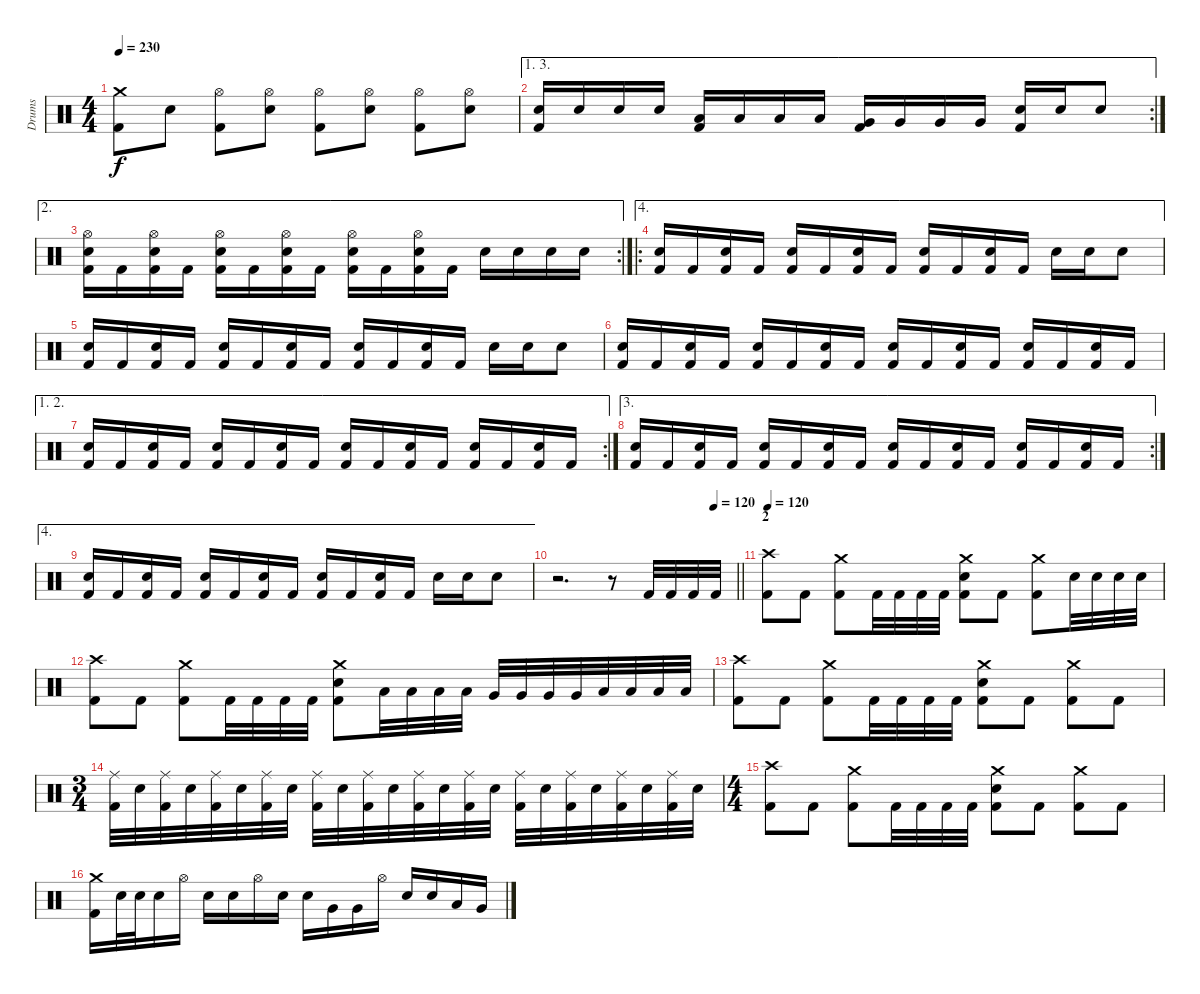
\track ("Drums" "Drums") {instrument percussion}
\staff {score}
\articulation defaults
\ts (4 4)
\tempo 230
\clef neutral
\ks c
("Crash medium (hit)" "Kick (hit) 2").8{dy f} "Electric Snare (hit)".8 ("Hi-Hat (open)" "Kick (hit) 2").8 ("Hi-Hat (open)" "Electric Snare (hit)").8 ("Hi-Hat (open)" "Kick (hit) 2").8 ("Hi-Hat (open)" "Electric Snare (hit)").8 ("Hi-Hat (open)" "Kick (hit) 2").8 ("Hi-Hat (open)" "Electric Snare (hit)").8 |
\ae (1 3)
\rc 2
("Electric Snare (hit)" "Kick (hit) 2").16 "Electric Snare (hit)".16 "Electric Snare (hit)".16 "Electric Snare (hit)".16 ("Low Tom (hit)" "Kick (hit) 2").16 "Low Tom (hit)".16 "Low Tom (hit)".16 "Low Tom (hit)".16 ("Very Low Tom (hit)" "Kick (hit) 2").16 "Very Low Tom (hit)".16 "Very Low Tom (hit)".16 "Very Low Tom (hit)".16 ("Electric Snare (hit)" "Kick (hit) 2").16 "Electric Snare (hit)".16 "Electric Snare (hit)".8 |
\ae 2
\rc 2
("Hi-Hat (open)" "Electric Snare (hit)" "Kick (hit) 2").16 "Kick (hit) 2".16 ("Hi-Hat (open)" "Electric Snare (hit)" "Kick (hit) 2").16 "Kick (hit) 2".16 ("Hi-Hat (open)" "Electric Snare (hit)" "Kick (hit) 2").16 "Kick (hit) 2".16 ("Hi-Hat (open)" "Electric Snare (hit)" "Kick (hit) 2").16 "Kick (hit) 2".16 ("Hi-Hat (open)" "Electric Snare (hit)" "Kick (hit) 2").16 "Kick (hit) 2".16 ("Hi-Hat (open)" "Electric Snare (hit)" "Kick (hit) 2").16 "Kick (hit) 2".16 "Electric Snare (hit)".16 "Electric Snare (hit)".16 "Electric Snare (hit)".16 "Electric Snare (hit)".16 |
\ae 4
\ro
("Electric Snare (hit)" "Kick (hit) 2").16 "Kick (hit) 2".16 ("Electric Snare (hit)" "Kick (hit) 2").16 "Kick (hit) 2".16 ("Electric Snare (hit)" "Kick (hit) 2").16 "Kick (hit) 2".16 ("Electric Snare (hit)" "Kick (hit) 2").16 "Kick (hit) 2".16 ("Electric Snare (hit)" "Kick (hit) 2").16 "Kick (hit) 2".16 ("Electric Snare (hit)" "Kick (hit) 2").16 "Kick (hit) 2".16 "Electric Snare (hit)".16 "Electric Snare (hit)".16 "Electric Snare (hit)".8 |
("Electric Snare (hit)" "Kick (hit) 2").16 "Kick (hit) 2".16 ("Electric Snare (hit)" "Kick (hit) 2").16 "Kick (hit) 2".16 ("Electric Snare (hit)" "Kick (hit) 2").16 "Kick (hit) 2".16 ("Electric Snare (hit)" "Kick (hit) 2").16 "Kick (hit) 2".16 ("Electric Snare (hit)" "Kick (hit) 2").16 "Kick (hit) 2".16 ("Electric Snare (hit)" "Kick (hit) 2").16 "Kick (hit) 2".16 "Electric Snare (hit)".16 "Electric Snare (hit)".16 "Electric Snare (hit)".8 |
("Electric Snare (hit)" "Kick (hit) 2").16 "Kick (hit) 2".16 ("Electric Snare (hit)" "Kick (hit) 2").16 "Kick (hit) 2".16 ("Electric Snare (hit)" "Kick (hit) 2").16 "Kick (hit) 2".16 ("Electric Snare (hit)" "Kick (hit) 2").16 "Kick (hit) 2".16 ("Electric Snare (hit)" "Kick (hit) 2").16 "Kick (hit) 2".16 ("Electric Snare (hit)" "Kick (hit) 2").16 "Kick (hit) 2".16 ("Electric Snare (hit)" "Kick (hit) 2").16 "Kick (hit) 2".16 ("Electric Snare (hit)" "Kick (hit) 2").16 "Kick (hit) 2".16 |
\ae (1 2)
\rc 2
("Electric Snare (hit)" "Kick (hit) 2").16 "Kick (hit) 2".16 ("Electric Snare (hit)" "Kick (hit) 2").16 "Kick (hit) 2".16 ("Electric Snare (hit)" "Kick (hit) 2").16 "Kick (hit) 2".16 ("Electric Snare (hit)" "Kick (hit) 2").16 "Kick (hit) 2".16 ("Electric Snare (hit)" "Kick (hit) 2").16 "Kick (hit) 2".16 ("Electric Snare (hit)" "Kick (hit) 2").16 "Kick (hit) 2".16 ("Electric Snare (hit)" "Kick (hit) 2").16 "Kick (hit) 2".16 ("Electric Snare (hit)" "Kick (hit) 2").16 "Kick (hit) 2".16 |
\ae 3
\rc 2
("Electric Snare (hit)" "Kick (hit) 2").16 "Kick (hit) 2".16 ("Electric Snare (hit)" "Kick (hit) 2").16 "Kick (hit) 2".16 ("Electric Snare (hit)" "Kick (hit) 2").16 "Kick (hit) 2".16 ("Electric Snare (hit)" "Kick (hit) 2").16 "Kick (hit) 2".16 ("Electric Snare (hit)" "Kick (hit) 2").16 "Kick (hit) 2".16 ("Electric Snare (hit)" "Kick (hit) 2").16 "Kick (hit) 2".16 ("Electric Snare (hit)" "Kick (hit) 2").16 "Kick (hit) 2".16 ("Electric Snare (hit)" "Kick (hit) 2").16 "Kick (hit) 2".16 |
\ae 4
("Electric Snare (hit)" "Kick (hit) 2").16 "Kick (hit) 2".16 ("Electric Snare (hit)" "Kick (hit) 2").16 "Kick (hit) 2".16 ("Electric Snare (hit)" "Kick (hit) 2").16 "Kick (hit) 2".16 ("Electric Snare (hit)" "Kick (hit) 2").16 "Kick (hit) 2".16 ("Electric Snare (hit)" "Kick (hit) 2").16 "Kick (hit) 2".16 ("Electric Snare (hit)" "Kick (hit) 2").16 "Kick (hit) 2".16 "Electric Snare (hit)".16 "Electric Snare (hit)".16 "Electric Snare (hit)".8 |
\tempo (120 0.875)
\barLineRight lightlight
r.2{d} r.8 "Kick (hit) 2".32 "Kick (hit) 2".32 "Kick (hit) 2".32 "Kick (hit) 2".32 |
\section ("" "2")
\tempo 110
\tempo 120
("Crash high (hit)" "Kick (hit) 2").8 "Kick (hit) 2".8 ("Crash medium (hit)" "Kick (hit) 2").8 "Kick (hit) 2".32 "Kick (hit) 2".32 "Kick (hit) 2".32 "Kick (hit) 2".32 ("Crash medium (hit)" "Electric Snare (hit)" "Kick (hit) 2").8 "Kick (hit) 2".8 ("Crash medium (hit)" "Kick (hit) 2").8 "Electric Snare (hit)".32 "Electric Snare (hit)".32 "Electric Snare (hit)".32 "Electric Snare (hit)".32 |
("Crash high (hit)" "Kick (hit) 2").8 "Kick (hit) 2".8 ("Crash medium (hit)" "Kick (hit) 2").8 "Kick (hit) 2".32 "Kick (hit) 2".32 "Kick (hit) 2".32 "Kick (hit) 2".32 ("Crash medium (hit)" "Electric Snare (hit)" "Kick (hit) 2").8 "Low Tom (hit)".32 "Low Tom (hit)".32 "Low Tom (hit)".32 "Low Tom (hit)".32 "Very Low Tom (hit)".32 "Very Low Tom (hit)".32 "Very Low Tom (hit)".32 "Very Low Tom (hit)".32 "Low Floor Tom (hit)".32 "Low Floor Tom (hit)".32 "Low Floor Tom (hit)".32 "Low Floor Tom (hit)".32 |
("Crash high (hit)" "Kick (hit) 2").8 "Kick (hit) 2".8 ("Crash medium (hit)" "Kick (hit) 2").8 "Kick (hit) 2".32 "Kick (hit) 2".32 "Kick (hit) 2".32 "Kick (hit) 2".32 ("Crash medium (hit)" "Electric Snare (hit)" "Kick (hit) 2").8 "Kick (hit) 2".8 ("Crash medium (hit)" "Kick (hit) 2").8 "Kick (hit) 2".8 |
\ts (3 4)
("Ride (middle)" "Kick (hit) 2").32 "Electric Snare (hit)".32 ("Ride (middle)" "Kick (hit) 2").32 "Electric Snare (hit)".32 ("Ride (middle)" "Kick (hit) 2").32 "Electric Snare (hit)".32 ("Ride (middle)" "Kick (hit) 2").32 "Electric Snare (hit)".32 ("Ride (middle)" "Kick (hit) 2").32 "Electric Snare (hit)".32 ("Ride (middle)" "Kick (hit) 2").32 "Electric Snare (hit)".32 ("Ride (middle)" "Kick (hit) 2").32 "Electric Snare (hit)".32 ("Ride (middle)" "Kick (hit) 2").32 "Electric Snare (hit)".32 ("Ride (middle)" "Kick (hit) 2").32 "Electric Snare (hit)".32 ("Ride (middle)" "Kick (hit) 2").32 "Electric Snare (hit)".32 ("Ride (middle)" "Kick (hit) 2").32 "Electric Snare (hit)".32 ("Ride (middle)" "Kick (hit) 2").32 "Electric Snare (hit)".32 |
\ts (4 4)
("Crash high (hit)" "Kick (hit) 2").8 "Kick (hit) 2".8 ("Crash medium (hit)" "Kick (hit) 2").8 "Kick (hit) 2".32 "Kick (hit) 2".32 "Kick (hit) 2".32 "Kick (hit) 2".32 ("Crash medium (hit)" "Electric Snare (hit)" "Kick (hit) 2").8 "Kick (hit) 2".8 ("Crash medium (hit)" "Kick (hit) 2").8 "Kick (hit) 2".8 |
("Crash medium (hit)" "Kick (hit) 2").16 "Electric Snare (hit)".32 "Electric Snare (hit)".32 "Electric Snare (hit)".16 "Hi-Hat (open)".16 "Electric Snare (hit)".16 "Electric Snare (hit)".16 "Hi-Hat (open)".16 "Electric Snare (hit)".16 "Electric Snare (hit)".16 "Very Low Tom (hit)".16 "Very Low Tom (hit)".16 "Hi-Hat (open)".16 "Electric Snare (hit)".16 "Electric Snare (hit)".16 "Low Tom (hit)".16 "Very Low Tom (hit)".16
